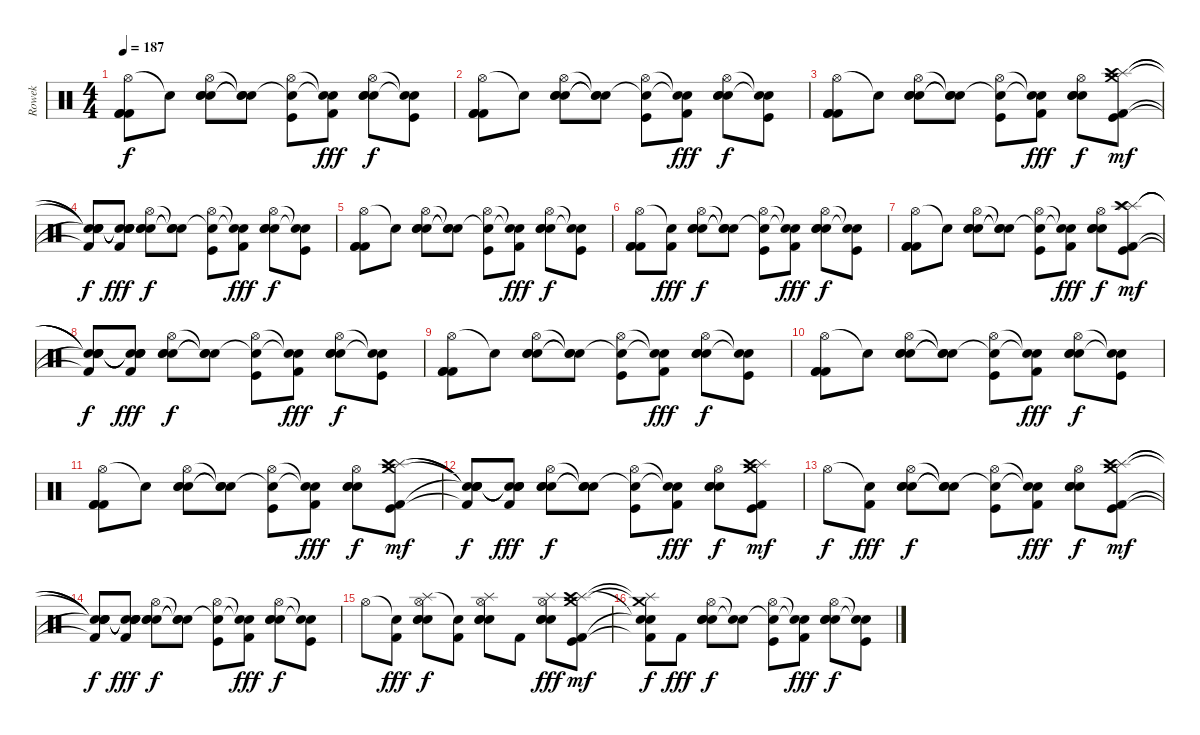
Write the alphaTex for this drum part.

\track ("Rowek" "Rowek") {instrument percussion}
\staff {score}
\articulation defaults
\ts (4 4)
\tempo 187
\clef neutral
\ks c
("Hi-Hat (open)" "Kick (hit) 2" "Kick (hit) 2" "Kick (hit) 2").8{dy f} "Snare (hit)"{t}.8 ("Hi-Hat (open)" "Electric Snare (hit)" "Electric Snare (hit)" "Electric Snare (hit)").8 ("Snare (hit)"{t} "Snare (hit)"{t} "Snare (hit)"{t}).8 ("Hi-Hat (open)" "Snare (hit)"{t} "Kick (hit)").8 ("Snare (hit)"{t} "Snare (hit)"{t} "Kick (hit) 2").8{dy fff} ("Hi-Hat (open)" "Electric Snare (hit)" "Electric Snare (hit)" "Electric Snare (hit)").8{dy f} ("Snare (hit)"{t} "Snare (hit)"{t} "Kick (hit)").8 |
("Hi-Hat (open)" "Kick (hit) 2" "Kick (hit) 2" "Kick (hit) 2").8 "Snare (hit)"{t}.8 ("Hi-Hat (open)" "Electric Snare (hit)" "Electric Snare (hit)" "Electric Snare (hit)").8 ("Snare (hit)"{t} "Snare (hit)"{t} "Snare (hit)"{t}).8 ("Hi-Hat (open)" "Snare (hit)"{t} "Kick (hit)").8 ("Snare (hit)"{t} "Snare (hit)"{t} "Kick (hit) 2").8{dy fff} ("Hi-Hat (open)" "Electric Snare (hit)" "Electric Snare (hit)" "Electric Snare (hit)").8{dy f} ("Snare (hit)"{t} "Snare (hit)"{t} "Kick (hit)").8 |
("Hi-Hat (open)" "Kick (hit) 2" "Kick (hit) 2" "Kick (hit) 2").8 "Snare (hit)"{t}.8 ("Hi-Hat (open)" "Electric Snare (hit)" "Electric Snare (hit)" "Electric Snare (hit)").8 ("Snare (hit)"{t} "Snare (hit)"{t} "Snare (hit)"{t}).8 ("Hi-Hat (open)" "Snare (hit)"{t} "Kick (hit)").8 ("Snare (hit)"{t} "Snare (hit)"{t} "Kick (hit) 2").8{dy fff} ("Hi-Hat (open)" "Electric Snare (hit)" "Electric Snare (hit)" "Electric Snare (hit)").8{dy f} ("Crash medium (hit)" "Splash (hit)" "Crash high (hit)" "Kick (hit) 2" "Kick (hit)").8{dy mf} |
("Snare (hit)"{t} "Snare (hit)"{t} "Snare (hit)"{t} "Snare (hit)"{t} "Kick (hit) 2"{t}).8{dy f} ("Snare (hit)"{t} "Snare (hit)"{t} "Snare (hit)"{t} "Snare (hit)"{t} "Kick (hit) 2").8{dy fff} ("Hi-Hat (open)" "Electric Snare (hit)" "Electric Snare (hit)" "Electric Snare (hit)").8{dy f} ("Snare (hit)"{t} "Snare (hit)"{t} "Snare (hit)"{t}).8 ("Hi-Hat (open)" "Snare (hit)"{t} "Kick (hit)").8 ("Snare (hit)"{t} "Snare (hit)"{t} "Kick (hit) 2").8{dy fff} ("Hi-Hat (open)" "Electric Snare (hit)" "Electric Snare (hit)" "Electric Snare (hit)").8{dy f} ("Snare (hit)"{t} "Snare (hit)"{t} "Kick (hit)").8 |
("Hi-Hat (open)" "Kick (hit) 2" "Kick (hit) 2" "Kick (hit) 2").8 "Snare (hit)"{t}.8 ("Hi-Hat (open)" "Electric Snare (hit)" "Electric Snare (hit)" "Electric Snare (hit)").8 ("Snare (hit)"{t} "Snare (hit)"{t} "Snare (hit)"{t}).8 ("Hi-Hat (open)" "Snare (hit)"{t} "Kick (hit)").8 ("Snare (hit)"{t} "Snare (hit)"{t} "Kick (hit) 2").8{dy fff} ("Hi-Hat (open)" "Electric Snare (hit)" "Electric Snare (hit)" "Electric Snare (hit)").8{dy f} ("Snare (hit)"{t} "Snare (hit)"{t} "Kick (hit)").8 |
("Hi-Hat (open)" "Kick (hit) 2" "Kick (hit) 2" "Kick (hit) 2").8 ("Snare (hit)"{t} "Kick (hit) 2").8{dy fff} ("Hi-Hat (open)" "Electric Snare (hit)" "Electric Snare (hit)" "Electric Snare (hit)").8{dy f} ("Snare (hit)"{t} "Snare (hit)"{t} "Snare (hit)"{t}).8 ("Hi-Hat (open)" "Snare (hit)"{t} "Kick (hit)").8 ("Snare (hit)"{t} "Snare (hit)"{t} "Kick (hit) 2").8{dy fff} ("Hi-Hat (open)" "Electric Snare (hit)" "Electric Snare (hit)" "Electric Snare (hit)").8{dy f} ("Snare (hit)"{t} "Snare (hit)"{t} "Kick (hit)").8 |
("Hi-Hat (open)" "Kick (hit) 2" "Kick (hit) 2" "Kick (hit) 2").8 "Snare (hit)"{t}.8 ("Hi-Hat (open)" "Electric Snare (hit)" "Electric Snare (hit)" "Electric Snare (hit)").8 ("Snare (hit)"{t} "Snare (hit)"{t} "Snare (hit)"{t}).8 ("Hi-Hat (open)" "Snare (hit)"{t} "Kick (hit)").8 ("Snare (hit)"{t} "Snare (hit)"{t} "Kick (hit) 2").8{dy fff} ("Hi-Hat (open)" "Electric Snare (hit)" "Electric Snare (hit)" "Electric Snare (hit)").8{dy f} ("Splash (hit)" "Splash (hit)" "Crash high (hit)" "Kick (hit) 2" "Kick (hit)").8{dy mf} |
("Snare (hit)"{t} "Snare (hit)"{t} "Snare (hit)"{t} "Snare (hit)"{t} "Kick (hit) 2"{t}).8{dy f} ("Snare (hit)"{t} "Snare (hit)"{t} "Snare (hit)"{t} "Snare (hit)"{t} "Kick (hit) 2").8{dy fff} ("Hi-Hat (open)" "Electric Snare (hit)" "Electric Snare (hit)" "Electric Snare (hit)").8{dy f} ("Snare (hit)"{t} "Snare (hit)"{t} "Snare (hit)"{t}).8 ("Hi-Hat (open)" "Snare (hit)"{t} "Kick (hit)").8 ("Snare (hit)"{t} "Snare (hit)"{t} "Kick (hit) 2").8{dy fff} ("Hi-Hat (open)" "Electric Snare (hit)" "Electric Snare (hit)" "Electric Snare (hit)").8{dy f} ("Snare (hit)"{t} "Snare (hit)"{t} "Kick (hit)").8 |
("Hi-Hat (open)" "Kick (hit) 2" "Kick (hit) 2" "Kick (hit) 2").8 "Snare (hit)"{t}.8 ("Hi-Hat (open)" "Electric Snare (hit)" "Electric Snare (hit)" "Electric Snare (hit)").8 ("Snare (hit)"{t} "Snare (hit)"{t} "Snare (hit)"{t}).8 ("Hi-Hat (open)" "Snare (hit)"{t} "Kick (hit)").8 ("Snare (hit)"{t} "Snare (hit)"{t} "Kick (hit) 2").8{dy fff} ("Hi-Hat (open)" "Electric Snare (hit)" "Electric Snare (hit)" "Electric Snare (hit)").8{dy f} ("Snare (hit)"{t} "Snare (hit)"{t} "Kick (hit)").8 |
("Hi-Hat (open)" "Kick (hit) 2" "Kick (hit) 2" "Kick (hit) 2").8 "Snare (hit)"{t}.8 ("Hi-Hat (open)" "Electric Snare (hit)" "Electric Snare (hit)" "Electric Snare (hit)").8 ("Snare (hit)"{t} "Snare (hit)"{t} "Snare (hit)"{t}).8 ("Hi-Hat (open)" "Snare (hit)"{t} "Kick (hit)").8 ("Snare (hit)"{t} "Snare (hit)"{t} "Kick (hit) 2").8{dy fff} ("Hi-Hat (open)" "Electric Snare (hit)" "Electric Snare (hit)" "Electric Snare (hit)").8{dy f} ("Snare (hit)"{t} "Snare (hit)"{t} "Kick (hit)").8 |
("Hi-Hat (open)" "Kick (hit) 2" "Kick (hit) 2" "Kick (hit) 2").8 "Snare (hit)"{t}.8 ("Hi-Hat (open)" "Electric Snare (hit)" "Electric Snare (hit)" "Electric Snare (hit)").8 ("Snare (hit)"{t} "Snare (hit)"{t} "Snare (hit)"{t}).8 ("Hi-Hat (open)" "Snare (hit)"{t} "Kick (hit)").8 ("Snare (hit)"{t} "Snare (hit)"{t} "Kick (hit) 2").8{dy fff} ("Hi-Hat (open)" "Electric Snare (hit)" "Electric Snare (hit)" "Electric Snare (hit)").8{dy f} ("Crash medium (hit)" "Splash (hit)" "Crash high (hit)" "Kick (hit) 2" "Kick (hit)").8{dy mf} |
("Snare (hit)"{t} "Snare (hit)"{t} "Snare (hit)"{t} "Snare (hit)"{t} "Kick (hit) 2"{t}).8{dy f} ("Snare (hit)"{t} "Snare (hit)"{t} "Snare (hit)"{t} "Snare (hit)"{t} "Kick (hit) 2").8{dy fff} ("Hi-Hat (open)" "Electric Snare (hit)" "Electric Snare (hit)" "Electric Snare (hit)").8{dy f} ("Snare (hit)"{t} "Snare (hit)"{t} "Snare (hit)"{t}).8 ("Hi-Hat (open)" "Snare (hit)"{t} "Kick (hit)").8 ("Snare (hit)"{t} "Snare (hit)"{t} "Kick (hit) 2").8{dy fff} ("Hi-Hat (open)" "Electric Snare (hit)" "Electric Snare (hit)" "Electric Snare (hit)").8{dy f} ("Crash medium (hit)" "Splash (hit)" "Crash high (hit)" "Kick (hit) 2" "Kick (hit)").8{dy mf} |
"Hi-Hat (open)".8{dy f} ("Snare (hit)"{t} "Kick (hit) 2").8{dy fff} ("Hi-Hat (open)" "Electric Snare (hit)" "Electric Snare (hit)" "Electric Snare (hit)").8{dy f} ("Snare (hit)"{t} "Snare (hit)"{t} "Snare (hit)"{t}).8 ("Hi-Hat (open)" "Snare (hit)"{t} "Kick (hit)").8 ("Snare (hit)"{t} "Snare (hit)"{t} "Kick (hit) 2").8{dy fff} ("Hi-Hat (open)" "Electric Snare (hit)" "Electric Snare (hit)" "Electric Snare (hit)").8{dy f} ("Crash medium (hit)" "Splash (hit)" "Crash high (hit)" "Kick (hit) 2" "Kick (hit)").8{dy mf} |
("Snare (hit)"{t} "Snare (hit)"{t} "Snare (hit)"{t} "Snare (hit)"{t} "Kick (hit) 2"{t}).8{dy f} ("Snare (hit)"{t} "Snare (hit)"{t} "Snare (hit)"{t} "Snare (hit)"{t} "Kick (hit) 2").8{dy fff} ("Hi-Hat (open)" "Electric Snare (hit)" "Electric Snare (hit)" "Electric Snare (hit)").8{dy f} ("Snare (hit)"{t} "Snare (hit)"{t} "Snare (hit)"{t}).8 ("Hi-Hat (open)" "Snare (hit)"{t} "Kick (hit)").8 ("Snare (hit)"{t} "Snare (hit)"{t} "Kick (hit) 2").8{dy fff} ("Hi-Hat (open)" "Electric Snare (hit)" "Electric Snare (hit)" "Electric Snare (hit)").8{dy f} ("Snare (hit)"{t} "Snare (hit)"{t} "Kick (hit)").8 |
"Hi-Hat (open)".8 ("Snare (hit)"{t} "Kick (hit) 2").8{dy fff} ("Splash (hit)" "Hi-Hat (open)" "Electric Snare (hit)" "Electric Snare (hit)" "Electric Snare (hit)").8{dy f} ("Snare (hit)"{t} "Kick (hit) 2").8 ("Splash (hit)" "Electric Snare (hit)" "Hi-Hat (open)" "Electric Snare (hit)" "Electric Snare (hit)").8 "Kick (hit) 2".8 ("Splash (hit)" "Electric Snare (hit)" "Hi-Hat (open)" "Electric Snare (hit)" "Electric Snare (hit)").8{dy fff} ("Crash medium (hit)" "Splash (hit)" "Crash high (hit)" "Kick (hit) 2" "Kick (hit)").8{dy mf} |
("Crash medium (hit)"{t} "Splash (hit)"{t} "Snare (hit)"{t} "Snare (hit)"{t} "Kick (hit) 2"{t}).8{dy f} "Kick (hit) 2".8{dy fff} ("Hi-Hat (open)" "Electric Snare (hit)" "Electric Snare (hit)" "Electric Snare (hit)").8{dy f} ("Snare (hit)"{t} "Snare (hit)"{t}).8 ("Hi-Hat (open)" "Snare (hit)"{t} "Kick (hit)").8 ("Snare (hit)"{t} "Snare (hit)"{t} "Kick (hit) 2").8{dy fff} ("Hi-Hat (open)" "Electric Snare (hit)" "Electric Snare (hit)" "Electric Snare (hit)").8{dy f} ("Snare (hit)"{t} "Snare (hit)"{t} "Kick (hit)").8
